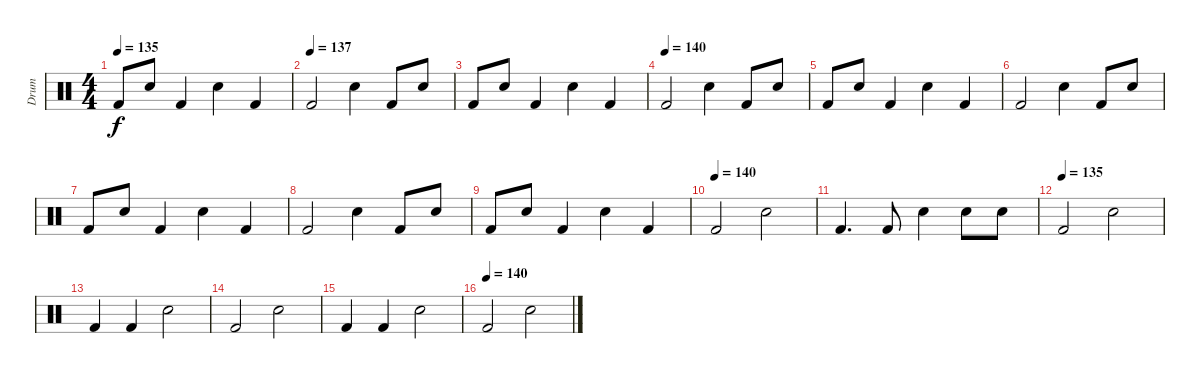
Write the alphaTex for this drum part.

\track ("Drum" "Drum") {instrument percussion}
\staff {score}
\articulation defaults
\ts (4 4)
\tempo 135
\clef neutral
\ks c "Kick (hit) 2".8{dy f} "Electric Snare (hit)".8 "Kick (hit) 2".4 "Electric Snare (hit)".4 "Kick (hit) 2".4
|
\tempo (137)
"Kick (hit) 2".2 "Electric Snare (hit)".4 "Kick (hit) 2".8 "Electric Snare (hit)".8 |
"Kick (hit) 2".8 "Electric Snare (hit)".8 "Kick (hit) 2".4 "Electric Snare (hit)".4 "Kick (hit) 2".4 |
\tempo (140)
"Kick (hit) 2".2 "Electric Snare (hit)".4 "Kick (hit) 2".8 "Electric Snare (hit)".8 |
"Kick (hit) 2".8 "Electric Snare (hit)".8 "Kick (hit) 2".4 "Electric Snare (hit)".4 "Kick (hit) 2".4 |
"Kick (hit) 2".2 "Electric Snare (hit)".4 "Kick (hit) 2".8 "Electric Snare (hit)".8 |
"Kick (hit) 2".8 "Electric Snare (hit)".8 "Kick (hit) 2".4 "Electric Snare (hit)".4 "Kick (hit) 2".4 |
"Kick (hit) 2".2 "Electric Snare (hit)".4 "Kick (hit) 2".8 "Electric Snare (hit)".8 |
"Kick (hit) 2".8 "Electric Snare (hit)".8 "Kick (hit) 2".4 "Electric Snare (hit)".4 "Kick (hit) 2".4 |
\tempo (140)
"Kick (hit) 2".2 "Electric Snare (hit)".2 |
"Kick (hit) 2".4{d} "Kick (hit) 2".8 "Electric Snare (hit)".4 "Electric Snare (hit)".8 "Electric Snare (hit)".8 |
\tempo (135)
"Kick (hit) 2".2 "Electric Snare (hit)".2 |
"Kick (hit) 2".4 "Kick (hit) 2".4 "Electric Snare (hit)".2 |
"Kick (hit) 2".2 "Electric Snare (hit)".2 |
"Kick (hit) 2".4 "Kick (hit) 2".4 "Electric Snare (hit)".2 |
\tempo (140)
"Kick (hit) 2".2 "Electric Snare (hit)".2
